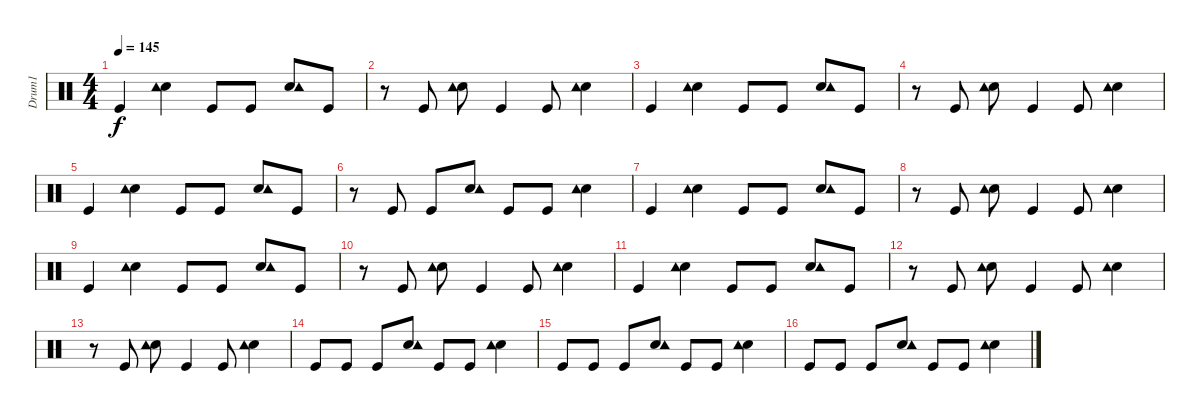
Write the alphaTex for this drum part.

\track ("Drum1" "Drum1") {instrument percussion}
\staff {score}
\articulation defaults
\ts (4 4)
\tempo 145
\clef neutral
\ks c "Kick (hit)".4{dy f}
("Snare (hit) 2" "Tambourine (hit)").4 "Kick (hit)".8 "Kick (hit)".8 ("Snare (hit) 2" "Tambourine (hit)").8 "Kick (hit)".8 |
r.8 "Kick (hit)".8 ("Snare (hit) 2" "Tambourine (hit)").8 "Kick (hit)".4 "Kick (hit)".8 ("Snare (hit) 2" "Tambourine (hit)").4 |
"Kick (hit)".4 ("Snare (hit) 2" "Tambourine (hit)").4 "Kick (hit)".8 "Kick (hit)".8 ("Snare (hit) 2" "Tambourine (hit)").8 "Kick (hit)".8 |
r.8 "Kick (hit)".8 ("Snare (hit) 2" "Tambourine (hit)").8 "Kick (hit)".4 "Kick (hit)".8 ("Snare (hit) 2" "Tambourine (hit)").4 |
"Kick (hit)".4 ("Snare (hit) 2" "Tambourine (hit)").4 "Kick (hit)".8 "Kick (hit)".8 ("Snare (hit) 2" "Tambourine (hit)").8 "Kick (hit)".8 |
r.8 "Kick (hit)".8 "Kick (hit)".8 ("Snare (hit) 2" "Tambourine (hit)").8 "Kick (hit)".8 "Kick (hit)".8 ("Snare (hit) 2" "Tambourine (hit)").4 |
"Kick (hit)".4 ("Snare (hit) 2" "Tambourine (hit)").4 "Kick (hit)".8 "Kick (hit)".8 ("Snare (hit) 2" "Tambourine (hit)").8 "Kick (hit)".8 |
r.8 "Kick (hit)".8 ("Snare (hit) 2" "Tambourine (hit)").8 "Kick (hit)".4 "Kick (hit)".8 ("Snare (hit) 2" "Tambourine (hit)").4 |
"Kick (hit)".4 ("Snare (hit) 2" "Tambourine (hit)").4 "Kick (hit)".8 "Kick (hit)".8 ("Snare (hit) 2" "Tambourine (hit)").8 "Kick (hit)".8 |
r.8 "Kick (hit)".8 ("Snare (hit) 2" "Tambourine (hit)").8 "Kick (hit)".4 "Kick (hit)".8 ("Snare (hit) 2" "Tambourine (hit)").4 |
"Kick (hit)".4 ("Snare (hit) 2" "Tambourine (hit)").4 "Kick (hit)".8 "Kick (hit)".8 ("Snare (hit) 2" "Tambourine (hit)").8 "Kick (hit)".8 |
r.8 "Kick (hit)".8 ("Snare (hit) 2" "Tambourine (hit)").8 "Kick (hit)".4 "Kick (hit)".8 ("Snare (hit) 2" "Tambourine (hit)").4 |
r.8 "Kick (hit)".8 ("Snare (hit) 2" "Tambourine (hit)").8 "Kick (hit)".4 "Kick (hit)".8 ("Snare (hit) 2" "Tambourine (hit)").4 |
"Kick (hit)".8 "Kick (hit)".8 "Kick (hit)".8 ("Snare (hit) 2" "Tambourine (hit)").8 "Kick (hit)".8 "Kick (hit)".8 ("Snare (hit) 2" "Tambourine (hit)").4 |
"Kick (hit)".8 "Kick (hit)".8 "Kick (hit)".8 ("Snare (hit) 2" "Tambourine (hit)").8 "Kick (hit)".8 "Kick (hit)".8 ("Snare (hit) 2" "Tambourine (hit)").4 |
"Kick (hit)".8 "Kick (hit)".8 "Kick (hit)".8 ("Snare (hit) 2" "Tambourine (hit)").8 "Kick (hit)".8 "Kick (hit)".8 ("Snare (hit) 2" "Tambourine (hit)").4
